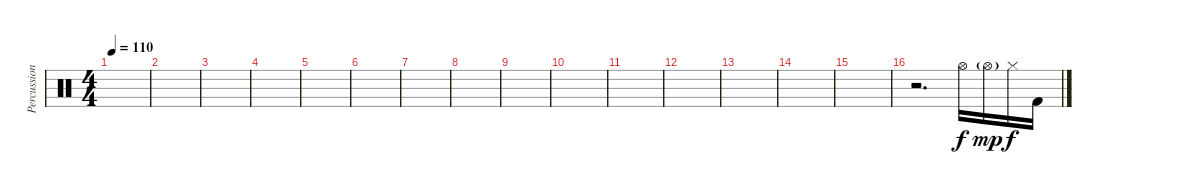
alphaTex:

\track ("Percussion" "Percussion") {instrument percussion}
\staff {score}
\articulation defaults
\ts (4 4)
\tempo 110
\clef neutral
\ks c
|
|
|
|
|
|
|
|
|
|
|
|
|
|
|
r.2{d} "Hi-Hat (open)".16 "Hi-Hat (open)"{g}.16{dy mp} "Hi-Hat (closed)".16{dy f} "Kick (hit) 2".16
